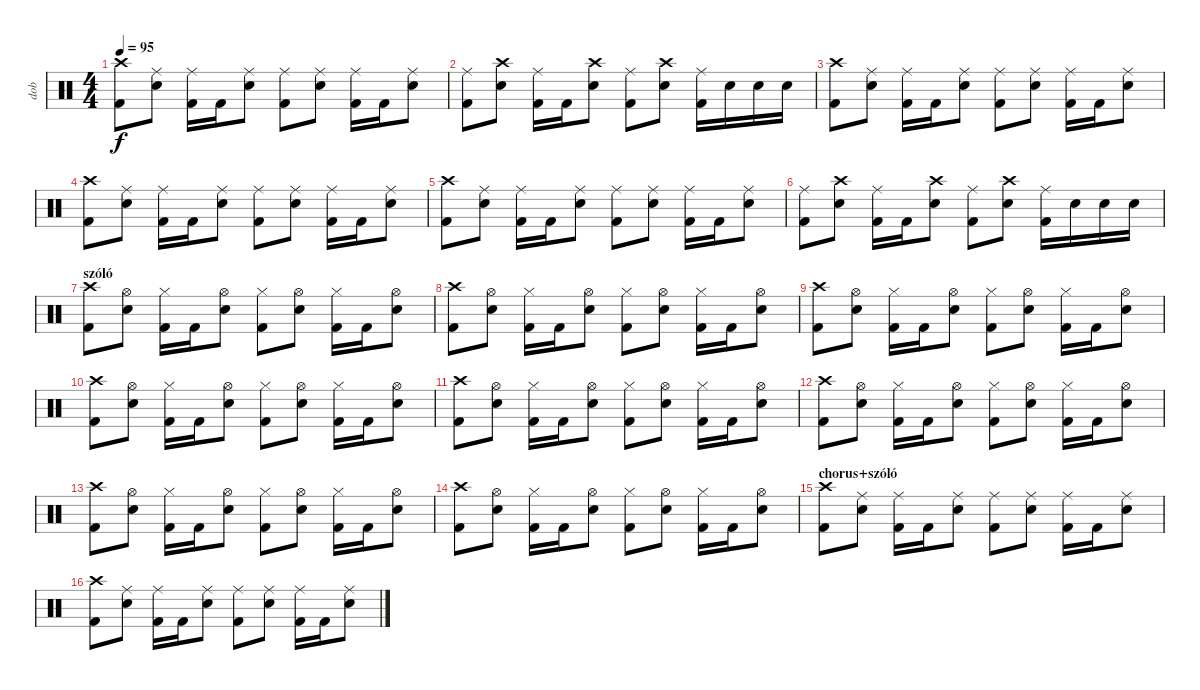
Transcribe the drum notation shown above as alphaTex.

\track ("dob" "dob") {instrument percussion}
\staff {score}
\articulation defaults
\ts (4 4)
\tempo 95
\clef neutral
\ks c
("Crash high (hit)" "Kick (hit) 2").8{dy f} ("Ride (middle)" "Snare (hit) 2").8 ("Ride (middle)" "Kick (hit) 2").16 "Kick (hit) 2".16 ("Ride (middle)" "Snare (hit) 2").8 ("Ride (middle)" "Kick (hit) 2").8 ("Ride (middle)" "Snare (hit) 2").8 ("Ride (middle)" "Kick (hit) 2").16 "Kick (hit) 2".16 ("Ride (middle)" "Snare (hit) 2").8 |
("Ride (middle)" "Kick (hit) 2").8 ("Crash high (hit)" "Snare (hit) 2").8 ("Ride (middle)" "Kick (hit) 2").16 "Kick (hit) 2".16 ("Crash high (hit)" "Snare (hit) 2").8 ("Ride (middle)" "Kick (hit) 2").8 ("Crash high (hit)" "Snare (hit) 2").8 ("Ride (middle)" "Kick (hit) 2").16 "Snare (hit) 2".16 "Snare (hit) 2".16 "Snare (hit) 2".16 |
("Crash high (hit)" "Kick (hit) 2").8 ("Ride (middle)" "Snare (hit) 2").8 ("Ride (middle)" "Kick (hit) 2").16 "Kick (hit) 2".16 ("Ride (middle)" "Snare (hit) 2").8 ("Ride (middle)" "Kick (hit) 2").8 ("Ride (middle)" "Snare (hit) 2").8 ("Ride (middle)" "Kick (hit) 2").16 "Kick (hit) 2".16 ("Ride (middle)" "Snare (hit) 2").8 |
("Crash high (hit)" "Kick (hit) 2").8 ("Ride (middle)" "Snare (hit) 2").8 ("Ride (middle)" "Kick (hit) 2").16 "Kick (hit) 2".16 ("Ride (middle)" "Snare (hit) 2").8 ("Ride (middle)" "Kick (hit) 2").8 ("Ride (middle)" "Snare (hit) 2").8 ("Ride (middle)" "Kick (hit) 2").16 "Kick (hit) 2".16 ("Ride (middle)" "Snare (hit) 2").8 |
("Crash high (hit)" "Kick (hit) 2").8 ("Ride (middle)" "Snare (hit) 2").8 ("Ride (middle)" "Kick (hit) 2").16 "Kick (hit) 2".16 ("Ride (middle)" "Snare (hit) 2").8 ("Ride (middle)" "Kick (hit) 2").8 ("Ride (middle)" "Snare (hit) 2").8 ("Ride (middle)" "Kick (hit) 2").16 "Kick (hit) 2".16 ("Ride (middle)" "Snare (hit) 2").8 |
("Ride (middle)" "Kick (hit) 2").8 ("Crash high (hit)" "Snare (hit) 2").8 ("Ride (middle)" "Kick (hit) 2").16 "Kick (hit) 2".16 ("Crash high (hit)" "Snare (hit) 2").8 ("Ride (middle)" "Kick (hit) 2").8 ("Crash high (hit)" "Snare (hit) 2").8 ("Ride (middle)" "Kick (hit) 2").16 "Snare (hit) 2".16 "Snare (hit) 2".16 "Snare (hit) 2".16 |
\section ("" "szóló")
("Crash high (hit)" "Kick (hit) 2").8 ("Hi-Hat (open)" "Snare (hit) 2").8 ("Hi-Hat (closed)" "Kick (hit) 2").16 "Kick (hit) 2".16 ("Hi-Hat (open)" "Snare (hit) 2").8 ("Hi-Hat (closed)" "Kick (hit) 2").8 ("Hi-Hat (open)" "Snare (hit) 2").8 ("Hi-Hat (closed)" "Kick (hit) 2").16 "Kick (hit) 2".16 ("Hi-Hat (open)" "Snare (hit) 2").8 |
("Crash high (hit)" "Kick (hit) 2").8 ("Hi-Hat (open)" "Snare (hit) 2").8 ("Hi-Hat (closed)" "Kick (hit) 2").16 "Kick (hit) 2".16 ("Hi-Hat (open)" "Snare (hit) 2").8 ("Hi-Hat (closed)" "Kick (hit) 2").8 ("Hi-Hat (open)" "Snare (hit) 2").8 ("Hi-Hat (closed)" "Kick (hit) 2").16 "Kick (hit) 2".16 ("Hi-Hat (open)" "Snare (hit) 2").8 |
("Crash high (hit)" "Kick (hit) 2").8 ("Hi-Hat (open)" "Snare (hit) 2").8 ("Hi-Hat (closed)" "Kick (hit) 2").16 "Kick (hit) 2".16 ("Hi-Hat (open)" "Snare (hit) 2").8 ("Hi-Hat (closed)" "Kick (hit) 2").8 ("Hi-Hat (open)" "Snare (hit) 2").8 ("Hi-Hat (closed)" "Kick (hit) 2").16 "Kick (hit) 2".16 ("Hi-Hat (open)" "Snare (hit) 2").8 |
("Crash high (hit)" "Kick (hit) 2").8 ("Hi-Hat (open)" "Snare (hit) 2").8 ("Hi-Hat (closed)" "Kick (hit) 2").16 "Kick (hit) 2".16 ("Hi-Hat (open)" "Snare (hit) 2").8 ("Hi-Hat (closed)" "Kick (hit) 2").8 ("Hi-Hat (open)" "Snare (hit) 2").8 ("Hi-Hat (closed)" "Kick (hit) 2").16 "Kick (hit) 2".16 ("Hi-Hat (open)" "Snare (hit) 2").8 |
("Crash high (hit)" "Kick (hit) 2").8 ("Hi-Hat (open)" "Snare (hit) 2").8 ("Hi-Hat (closed)" "Kick (hit) 2").16 "Kick (hit) 2".16 ("Hi-Hat (open)" "Snare (hit) 2").8 ("Hi-Hat (closed)" "Kick (hit) 2").8 ("Hi-Hat (open)" "Snare (hit) 2").8 ("Hi-Hat (closed)" "Kick (hit) 2").16 "Kick (hit) 2".16 ("Hi-Hat (open)" "Snare (hit) 2").8 |
("Crash high (hit)" "Kick (hit) 2").8 ("Hi-Hat (open)" "Snare (hit) 2").8 ("Hi-Hat (closed)" "Kick (hit) 2").16 "Kick (hit) 2".16 ("Hi-Hat (open)" "Snare (hit) 2").8 ("Hi-Hat (closed)" "Kick (hit) 2").8 ("Hi-Hat (open)" "Snare (hit) 2").8 ("Hi-Hat (closed)" "Kick (hit) 2").16 "Kick (hit) 2".16 ("Hi-Hat (open)" "Snare (hit) 2").8 |
("Crash high (hit)" "Kick (hit) 2").8 ("Hi-Hat (open)" "Snare (hit) 2").8 ("Hi-Hat (closed)" "Kick (hit) 2").16 "Kick (hit) 2".16 ("Hi-Hat (open)" "Snare (hit) 2").8 ("Hi-Hat (closed)" "Kick (hit) 2").8 ("Hi-Hat (open)" "Snare (hit) 2").8 ("Hi-Hat (closed)" "Kick (hit) 2").16 "Kick (hit) 2".16 ("Hi-Hat (open)" "Snare (hit) 2").8 |
("Crash high (hit)" "Kick (hit) 2").8 ("Hi-Hat (open)" "Snare (hit) 2").8 ("Hi-Hat (closed)" "Kick (hit) 2").16 "Kick (hit) 2".16 ("Hi-Hat (open)" "Snare (hit) 2").8 ("Hi-Hat (closed)" "Kick (hit) 2").8 ("Hi-Hat (open)" "Snare (hit) 2").8 ("Hi-Hat (closed)" "Kick (hit) 2").16 "Kick (hit) 2".16 ("Hi-Hat (open)" "Snare (hit) 2").8 |
\section ("" "chorus+szóló")
("Crash high (hit)" "Kick (hit) 2").8 ("Ride (middle)" "Snare (hit) 2").8 ("Ride (middle)" "Kick (hit) 2").16 "Kick (hit) 2".16 ("Ride (middle)" "Snare (hit) 2").8 ("Ride (middle)" "Kick (hit) 2").8 ("Ride (middle)" "Snare (hit) 2").8 ("Ride (middle)" "Kick (hit) 2").16 "Kick (hit) 2".16 ("Ride (middle)" "Snare (hit) 2").8 |
("Crash high (hit)" "Kick (hit) 2").8 ("Ride (middle)" "Snare (hit) 2").8 ("Ride (middle)" "Kick (hit) 2").16 "Kick (hit) 2".16 ("Ride (middle)" "Snare (hit) 2").8 ("Ride (middle)" "Kick (hit) 2").8 ("Ride (middle)" "Snare (hit) 2").8 ("Ride (middle)" "Kick (hit) 2").16 "Kick (hit) 2".16 ("Ride (middle)" "Snare (hit) 2").8
